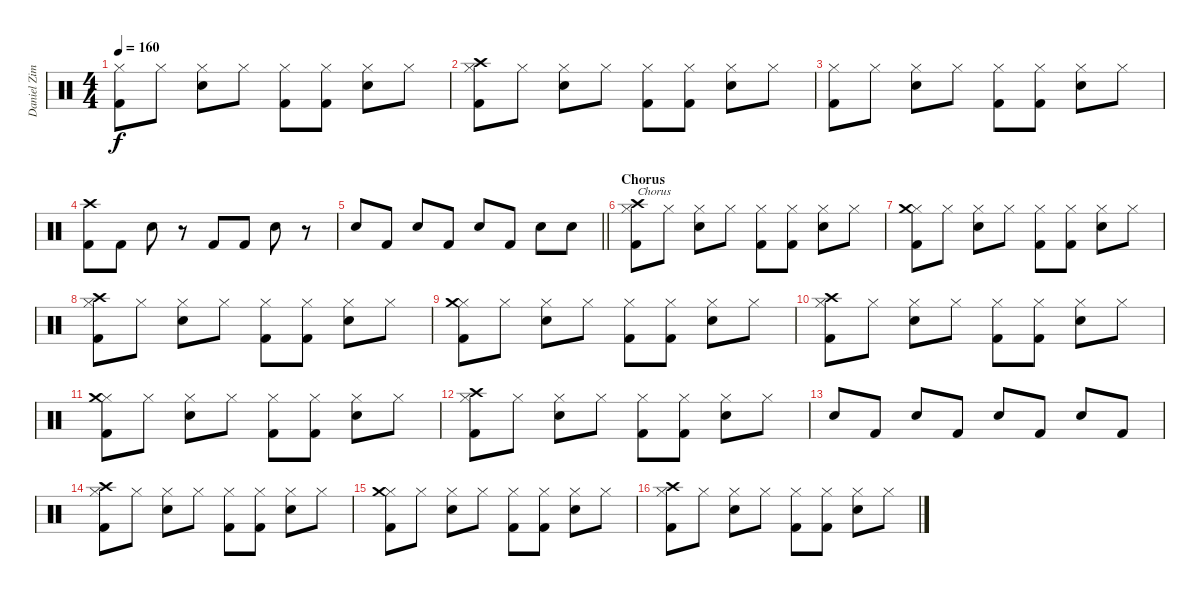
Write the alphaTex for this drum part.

\track ("Daniel Zimmermann" "Daniel Zim") {instrument percussion}
\staff {score}
\articulation defaults
\ts (4 4)
\tempo 160
\clef neutral
\ks c
("Hi-Hat (closed)" "Kick (hit) 2").8{dy f} "Hi-Hat (closed)".8 ("Hi-Hat (closed)" "Snare (hit) 2").8 "Hi-Hat (closed)".8 ("Hi-Hat (closed)" "Kick (hit) 2").8 ("Hi-Hat (closed)" "Kick (hit) 2").8 ("Hi-Hat (closed)" "Snare (hit) 2").8 "Hi-Hat (closed)".8 |
("Hi-Hat (closed)" "Kick (hit) 2" "Crash high (hit)").8 "Hi-Hat (closed)".8 ("Hi-Hat (closed)" "Snare (hit) 2").8 "Hi-Hat (closed)".8 ("Hi-Hat (closed)" "Kick (hit) 2").8 ("Hi-Hat (closed)" "Kick (hit) 2").8 ("Hi-Hat (closed)" "Snare (hit) 2").8 "Hi-Hat (closed)".8 |
("Hi-Hat (closed)" "Kick (hit) 2").8 "Hi-Hat (closed)".8 ("Hi-Hat (closed)" "Snare (hit) 2").8 "Hi-Hat (closed)".8 ("Hi-Hat (closed)" "Kick (hit) 2").8 ("Hi-Hat (closed)" "Kick (hit) 2").8 ("Hi-Hat (closed)" "Snare (hit) 2").8 "Hi-Hat (closed)".8 |
("Kick (hit) 2" "Crash high (hit)").8 "Kick (hit) 2".8 "Snare (hit) 2".8 r.8 "Kick (hit) 2".8 "Kick (hit) 2".8 "Snare (hit) 2".8 r.8 |
\barLineRight lightlight "Snare (hit) 2".8 "Kick (hit) 2".8 "Snare (hit) 2".8 "Kick (hit) 2".8 "Snare (hit) 2".8 "Kick (hit) 2".8 "Snare (hit) 2".8 "Snare (hit) 2".8
|
\section ("" "Chorus")
("Hi-Hat (closed)" "Kick (hit) 2" "Crash high (hit)").8{txt "Chorus"} "Hi-Hat (closed)".8 ("Hi-Hat (closed)" "Snare (hit) 2").8 "Hi-Hat (closed)".8 ("Hi-Hat (closed)" "Kick (hit) 2").8 ("Hi-Hat (closed)" "Kick (hit) 2").8 ("Hi-Hat (closed)" "Snare (hit) 2").8 "Hi-Hat (closed)".8 |
("Hi-Hat (closed)" "Kick (hit) 2" "Crash medium (hit)").8 "Hi-Hat (closed)".8 ("Hi-Hat (closed)" "Snare (hit) 2").8 "Hi-Hat (closed)".8 ("Hi-Hat (closed)" "Kick (hit) 2").8 ("Hi-Hat (closed)" "Kick (hit) 2").8 ("Hi-Hat (closed)" "Snare (hit) 2").8 "Hi-Hat (closed)".8 |
("Hi-Hat (closed)" "Kick (hit) 2" "Crash high (hit)").8 "Hi-Hat (closed)".8 ("Hi-Hat (closed)" "Snare (hit) 2").8 "Hi-Hat (closed)".8 ("Hi-Hat (closed)" "Kick (hit) 2").8 ("Hi-Hat (closed)" "Kick (hit) 2").8 ("Hi-Hat (closed)" "Snare (hit) 2").8 "Hi-Hat (closed)".8 |
("Hi-Hat (closed)" "Kick (hit) 2" "Crash medium (hit)").8 "Hi-Hat (closed)".8 ("Hi-Hat (closed)" "Snare (hit) 2").8 "Hi-Hat (closed)".8 ("Hi-Hat (closed)" "Kick (hit) 2").8 ("Hi-Hat (closed)" "Kick (hit) 2").8 ("Hi-Hat (closed)" "Snare (hit) 2").8 "Hi-Hat (closed)".8 |
("Hi-Hat (closed)" "Kick (hit) 2" "Crash high (hit)").8 "Hi-Hat (closed)".8 ("Hi-Hat (closed)" "Snare (hit) 2").8 "Hi-Hat (closed)".8 ("Hi-Hat (closed)" "Kick (hit) 2").8 ("Hi-Hat (closed)" "Kick (hit) 2").8 ("Hi-Hat (closed)" "Snare (hit) 2").8 "Hi-Hat (closed)".8 |
("Hi-Hat (closed)" "Kick (hit) 2" "Crash medium (hit)").8 "Hi-Hat (closed)".8 ("Hi-Hat (closed)" "Snare (hit) 2").8 "Hi-Hat (closed)".8 ("Hi-Hat (closed)" "Kick (hit) 2").8 ("Hi-Hat (closed)" "Kick (hit) 2").8 ("Hi-Hat (closed)" "Snare (hit) 2").8 "Hi-Hat (closed)".8 |
("Hi-Hat (closed)" "Kick (hit) 2" "Crash high (hit)").8 "Hi-Hat (closed)".8 ("Hi-Hat (closed)" "Snare (hit) 2").8 "Hi-Hat (closed)".8 ("Hi-Hat (closed)" "Kick (hit) 2").8 ("Hi-Hat (closed)" "Kick (hit) 2").8 ("Hi-Hat (closed)" "Snare (hit) 2").8 "Hi-Hat (closed)".8 |
"Snare (hit) 2".8 "Kick (hit) 2".8 "Snare (hit) 2".8 "Kick (hit) 2".8 "Snare (hit) 2".8 "Kick (hit) 2".8 "Snare (hit) 2".8 "Kick (hit) 2".8 |
("Hi-Hat (closed)" "Kick (hit) 2" "Crash high (hit)").8 "Hi-Hat (closed)".8 ("Hi-Hat (closed)" "Snare (hit) 2").8 "Hi-Hat (closed)".8 ("Hi-Hat (closed)" "Kick (hit) 2").8 ("Hi-Hat (closed)" "Kick (hit) 2").8 ("Hi-Hat (closed)" "Snare (hit) 2").8 "Hi-Hat (closed)".8 |
("Hi-Hat (closed)" "Kick (hit) 2" "Crash medium (hit)").8 "Hi-Hat (closed)".8 ("Hi-Hat (closed)" "Snare (hit) 2").8 "Hi-Hat (closed)".8 ("Hi-Hat (closed)" "Kick (hit) 2").8 ("Hi-Hat (closed)" "Kick (hit) 2").8 ("Hi-Hat (closed)" "Snare (hit) 2").8 "Hi-Hat (closed)".8 |
("Hi-Hat (closed)" "Kick (hit) 2" "Crash high (hit)").8 "Hi-Hat (closed)".8 ("Hi-Hat (closed)" "Snare (hit) 2").8 "Hi-Hat (closed)".8 ("Hi-Hat (closed)" "Kick (hit) 2").8 ("Hi-Hat (closed)" "Kick (hit) 2").8 ("Hi-Hat (closed)" "Snare (hit) 2").8 "Hi-Hat (closed)".8
